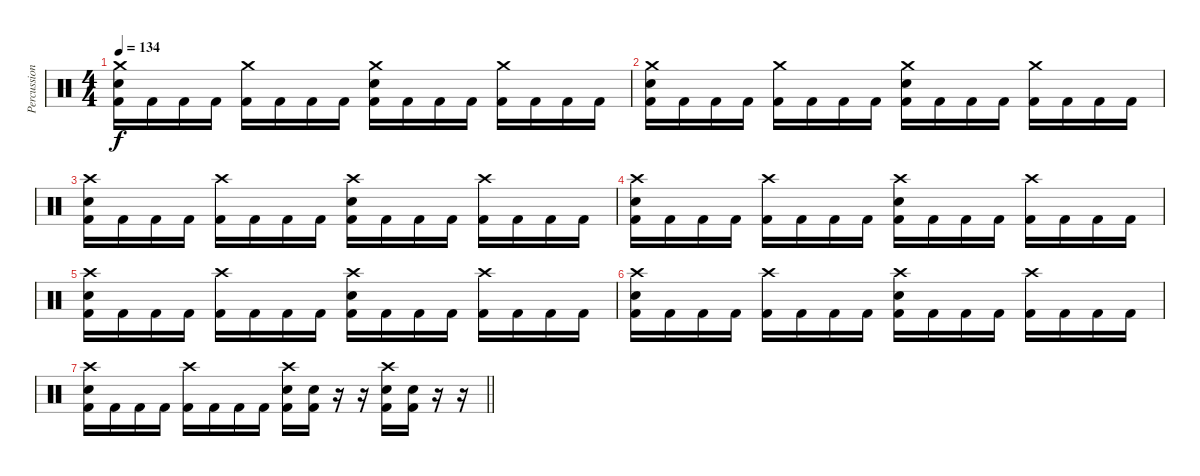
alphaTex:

\track ("Percussion" "Percussion") {instrument percussion}
\staff {score}
\articulation defaults
\ts (4 4)
\tempo 134
\clef neutral
\ks c
("Crash medium (hit)" "Snare (hit) 2" "Kick (hit) 2").16{dy f} "Kick (hit) 2".16 "Kick (hit) 2".16 "Kick (hit) 2".16 ("Crash medium (hit)" "Kick (hit) 2").16 "Kick (hit) 2".16 "Kick (hit) 2".16 "Kick (hit) 2".16 ("Crash medium (hit)" "Snare (hit) 2" "Kick (hit) 2").16 "Kick (hit) 2".16 "Kick (hit) 2".16 "Kick (hit) 2".16 ("Crash medium (hit)" "Kick (hit) 2").16 "Kick (hit) 2".16 "Kick (hit) 2".16 "Kick (hit) 2".16 |
("Crash medium (hit)" "Snare (hit) 2" "Kick (hit) 2").16 "Kick (hit) 2".16 "Kick (hit) 2".16 "Kick (hit) 2".16 ("Crash medium (hit)" "Kick (hit) 2").16 "Kick (hit) 2".16 "Kick (hit) 2".16 "Kick (hit) 2".16 ("Crash medium (hit)" "Snare (hit) 2" "Kick (hit) 2").16 "Kick (hit) 2".16 "Kick (hit) 2".16 "Kick (hit) 2".16 ("Crash medium (hit)" "Kick (hit) 2").16 "Kick (hit) 2".16 "Kick (hit) 2".16 "Kick (hit) 2".16 |
("Crash high (hit)" "Snare (hit) 2" "Kick (hit) 2").16 "Kick (hit) 2".16 "Kick (hit) 2".16 "Kick (hit) 2".16 ("Crash high (hit)" "Kick (hit) 2").16 "Kick (hit) 2".16 "Kick (hit) 2".16 "Kick (hit) 2".16 ("Crash high (hit)" "Snare (hit) 2" "Kick (hit) 2").16 "Kick (hit) 2".16 "Kick (hit) 2".16 "Kick (hit) 2".16 ("Crash high (hit)" "Kick (hit) 2").16 "Kick (hit) 2".16 "Kick (hit) 2".16 "Kick (hit) 2".16 |
("Crash high (hit)" "Snare (hit) 2" "Kick (hit) 2").16 "Kick (hit) 2".16 "Kick (hit) 2".16 "Kick (hit) 2".16 ("Crash high (hit)" "Kick (hit) 2").16 "Kick (hit) 2".16 "Kick (hit) 2".16 "Kick (hit) 2".16 ("Crash high (hit)" "Snare (hit) 2" "Kick (hit) 2").16 "Kick (hit) 2".16 "Kick (hit) 2".16 "Kick (hit) 2".16 ("Crash high (hit)" "Kick (hit) 2").16 "Kick (hit) 2".16 "Kick (hit) 2".16 "Kick (hit) 2".16 |
("Crash high (hit)" "Snare (hit) 2" "Kick (hit) 2").16 "Kick (hit) 2".16 "Kick (hit) 2".16 "Kick (hit) 2".16 ("Crash high (hit)" "Kick (hit) 2").16 "Kick (hit) 2".16 "Kick (hit) 2".16 "Kick (hit) 2".16 ("Crash high (hit)" "Snare (hit) 2" "Kick (hit) 2").16 "Kick (hit) 2".16 "Kick (hit) 2".16 "Kick (hit) 2".16 ("Crash high (hit)" "Kick (hit) 2").16 "Kick (hit) 2".16 "Kick (hit) 2".16 "Kick (hit) 2".16 |
("Crash high (hit)" "Snare (hit) 2" "Kick (hit) 2").16 "Kick (hit) 2".16 "Kick (hit) 2".16 "Kick (hit) 2".16 ("Crash high (hit)" "Kick (hit) 2").16 "Kick (hit) 2".16 "Kick (hit) 2".16 "Kick (hit) 2".16 ("Crash high (hit)" "Snare (hit) 2" "Kick (hit) 2").16 "Kick (hit) 2".16 "Kick (hit) 2".16 "Kick (hit) 2".16 ("Crash high (hit)" "Kick (hit) 2").16 "Kick (hit) 2".16 "Kick (hit) 2".16 "Kick (hit) 2".16 |
\barLineRight lightlight
("Crash high (hit)" "Snare (hit) 2" "Kick (hit) 2").16 "Kick (hit) 2".16 "Kick (hit) 2".16 "Kick (hit) 2".16 ("Crash high (hit)" "Kick (hit) 2").16 "Kick (hit) 2".16 "Kick (hit) 2".16 "Kick (hit) 2".16 ("Crash high (hit)" "Snare (hit) 2" "Kick (hit) 2").16 ("Snare (hit) 2" "Kick (hit) 2").16 r.16 r.16 ("Crash high (hit)" "Snare (hit) 2" "Kick (hit) 2").16 ("Snare (hit) 2" "Kick (hit) 2").16 r.16 r.16
